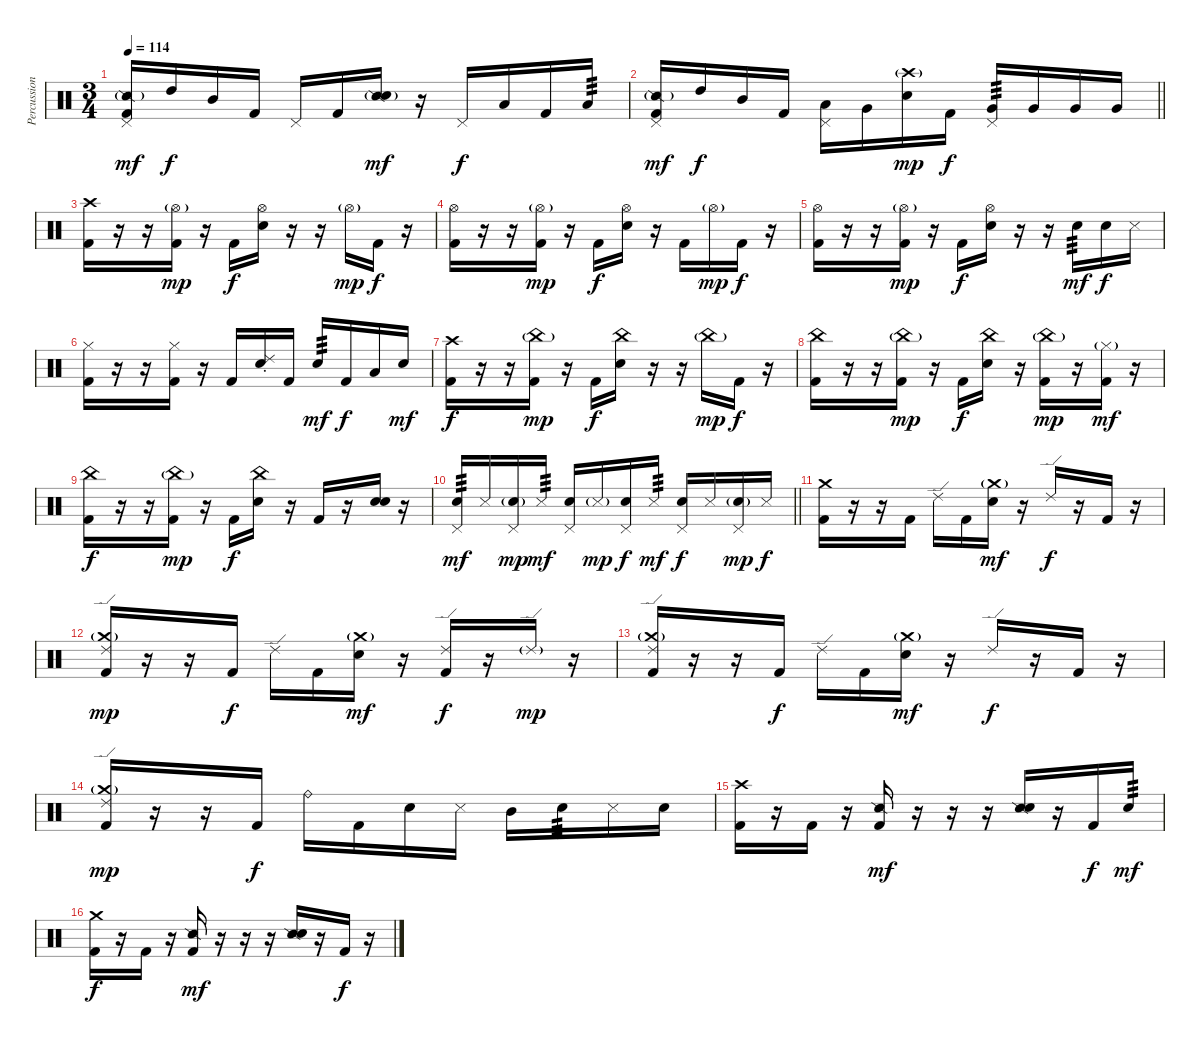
\track ("Percussion" "Percussion") {instrument percussion}
\staff {score}
\articulation defaults
\ts (3 4)
\tempo 114
\clef neutral
\ks c
("Snare (side stick) 2"{g} "Pedal Hi-Hat (hit)" "Kick (hit) 2").16{dy mf} "High Tom (hit)".16{dy f} "Mid Tom (hit)".16 "Kick (hit) 2".16 "Pedal Hi-Hat (hit)".16 "Kick (hit) 2".16 ("Snare (side stick) 2"{g} "Snare (hit) 2").16{dy mf} r.16 "Pedal Hi-Hat (hit)".16{dy f} "Low Tom (hit)".16 "Kick (hit) 2".16 "Low Tom (hit)".16{tp 3} |
\barLineRight lightlight
("Snare (side stick) 2"{g} "Pedal Hi-Hat (hit)" "Kick (hit) 2").16{dy mf} "High Tom (hit)".16{dy f} "Mid Tom (hit)".16 "Kick (hit) 2".16 ("Pedal Hi-Hat (hit)" "Low Tom (hit)").16 "Very Low Tom (hit)".16 ("Crash high (hit)"{g} "Snare (hit) 2").16{dy mp} "Kick (hit) 2".16{dy f} ("Pedal Hi-Hat (hit)" "Very Low Tom (hit)").16{tp 3} "Very Low Tom (hit)".16 "Very Low Tom (hit)".16 "Very Low Tom (hit)".16 |
("Crash high (hit)" "Kick (hit) 2").16 r.16 r.16 ("Hi-Hat (open)"{g} "Kick (hit) 2").16{dy mp} r.16 "Kick (hit) 2".16{dy f} ("Hi-Hat (open)" "Snare (hit) 2").16 r.16 r.16 "Hi-Hat (open)"{g}.16{dy mp} "Kick (hit) 2".16{dy f} r.16 |
("Hi-Hat (open)" "Kick (hit) 2").16 r.16 r.16 ("Hi-Hat (open)"{g} "Kick (hit) 2").16{dy mp} r.16 "Kick (hit) 2".16{dy f} ("Hi-Hat (open)" "Snare (hit) 2").16 r.16 "Kick (hit) 2".16 "Hi-Hat (open)"{g}.16{dy mp} "Kick (hit) 2".16{dy f} r.16 |
("Hi-Hat (open)" "Kick (hit) 2").16 r.16 r.16 ("Hi-Hat (open)"{g} "Kick (hit) 2").16{dy mp} r.16 "Kick (hit) 2".16{dy f} ("Hi-Hat (open)" "Snare (hit) 2").16 r.16 r.16 "Snare (hit) 2".16{tp 3 dy mf} "Snare (hit) 2".16{dy f} "Metronome (hit)".16 |
("Hi-Hat (closed)" "Kick (hit) 2").16 r.16 r.16 ("Hi-Hat (closed)" "Kick (hit) 2").16 r.16 "Kick (hit) 2".16 ("Ride (choke) 2" "Snare (hit) 2").16 "Kick (hit) 2".16 "Snare (hit) 2".16{tp 3 dy mf} "Kick (hit) 2".16{dy f} "Low Tom (hit)".16 "Snare (hit) 2".16{dy mf} |
("Crash high (hit)" "Kick (hit) 2").16{dy f} r.16 r.16 ("China (hit)"{g} "Kick (hit) 2").16{dy mp} r.16 "Kick (hit) 2".16{dy f} ("China (hit)" "Snare (hit) 2").16 r.16 r.16 "China (hit)"{g}.16{dy mp} "Kick (hit) 2".16{dy f} r.16 |
("China (hit)" "Kick (hit) 2").16 r.16 r.16 ("China (hit)"{g} "Kick (hit) 2").16{dy mp} r.16 "Kick (hit) 2".16{dy f} ("China (hit)" "Snare (hit) 2").16 r.16 ("China (hit)"{g} "Kick (hit) 2").16{dy mp} r.16 ("Hi-Hat (closed)"{g} "Kick (hit) 2").16{dy mf} r.16 |
("China (hit)" "Kick (hit) 2").16{dy f} r.16 r.16 ("China (hit)"{g} "Kick (hit) 2").16{dy mp} r.16 "Kick (hit) 2".16{dy f} ("China (hit)" "Snare (hit) 2").16 r.16 "Kick (hit) 2".16 r.16 ("Snare (hit)" "Snare (hit) 2").16 r.16 |
\barLineRight lightlight
("Pedal Hi-Hat (hit)" "Snare (hit) 2").16{tp 3 dy mf} "Metronome (hit)".16 ("Pedal Hi-Hat (hit)" "Snare (hit) 2"{g}).16{dy mp} "Metronome (hit)".16{tp 3 dy mf} ("Pedal Hi-Hat (hit)" "Snare (hit) 2").16 "Metronome (hit)"{g}.16{dy mp} ("Pedal Hi-Hat (hit)" "Snare (hit) 2").16{dy f} "Metronome (hit)".16{tp 3 dy mf} ("Pedal Hi-Hat (hit)" "Snare (hit) 2").16{dy f} "Metronome (hit)".16 ("Pedal Hi-Hat (hit)" "Snare (hit) 2"{g}).16{dy mp} "Metronome (hit)".16{dy f} |
("Crash medium (hit)" "Kick (hit) 2").16 r.16 r.16 "Kick (hit) 2".16 "Ride (edge) 2".16 "Kick (hit) 2".16 ("Crash medium (hit)"{g} "Snare (hit) 2").16{dy mf} r.16 "Ride (edge) 2".16{dy f} r.16 "Kick (hit) 2".16 r.16 |
("Crash medium (hit)"{g} "Ride (edge) 2" "Kick (hit) 2").16{dy mp} r.16 r.16 "Kick (hit) 2".16{dy f} "Ride (edge) 2".16 "Kick (hit) 2".16 ("Crash medium (hit)"{g} "Snare (hit) 2").16{dy mf} r.16 ("Ride (edge) 2" "Kick (hit) 2").16{dy f} r.16 "Ride (edge) 2"{g}.16{dy mp} r.16 |
("Crash medium (hit)"{g} "Ride (edge) 2" "Kick (hit) 2").16 r.16 r.16 "Kick (hit) 2".16{dy f} "Ride (edge) 2".16 "Kick (hit) 2".16 ("Crash medium (hit)"{g} "Snare (hit) 2").16{dy mf} r.16 "Ride (edge) 2".16{dy f} r.16 "Kick (hit) 2".16 r.16 |
("Crash medium (hit)"{g} "Ride (edge) 2" "Kick (hit) 2").16{dy mp} r.16 r.16 "Kick (hit) 2".16{dy f} "Ride (bell)".16 "Kick (hit) 2".16 "Snare (hit) 2".16 "Metronome (hit)".16 "Mid Tom (hit)".16 "Snare (hit) 2".16{tp 3} "Metronome (hit)".16 "Snare (hit) 2".16 |
("Crash high (hit)" "Kick (hit) 2").16 r.16 "Kick (hit) 2".16 r.16 ("Snare (side stick) 2" "Kick (hit) 2").16{dy mf} r.16 r.16 r.16 ("Snare (side stick) 2" "Snare (hit) 2").16 r.16 "Kick (hit) 2".16{dy f} "Snare (hit) 2".16{tp 3 dy mf} |
("Crash medium (hit)" "Kick (hit) 2").16{dy f} r.16 "Kick (hit) 2".16 r.16 ("Snare (side stick) 2" "Kick (hit) 2").16{dy mf} r.16 r.16 r.16 ("Snare (side stick) 2" "Snare (hit) 2").16 r.16 "Kick (hit) 2".16{dy f} r.16
